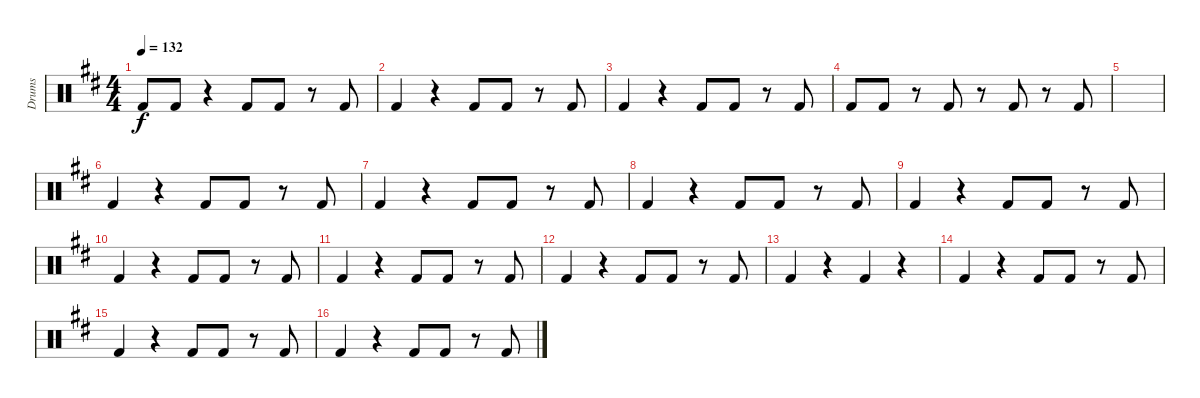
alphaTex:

\track ("Drums" "Drums") {instrument percussion}
\staff {score}
\articulation defaults
\ts (4 4)
\tempo 132
\clef neutral
\ks d "Kick (hit) 2".8{dy f} "Kick (hit) 2".8
r.4 "Kick (hit) 2".8 "Kick (hit) 2".8 r.8 "Kick (hit) 2".8 |
"Kick (hit) 2".4 r.4 "Kick (hit) 2".8 "Kick (hit) 2".8 r.8 "Kick (hit) 2".8 |
"Kick (hit) 2".4 r.4 "Kick (hit) 2".8 "Kick (hit) 2".8 r.8 "Kick (hit) 2".8 |
"Kick (hit) 2".8 "Kick (hit) 2".8 r.8 "Kick (hit) 2".8 r.8 "Kick (hit) 2".8 r.8 "Kick (hit) 2".8 |
|
"Kick (hit) 2".4 r.4 "Kick (hit) 2".8 "Kick (hit) 2".8 r.8 "Kick (hit) 2".8 |
"Kick (hit) 2".4 r.4 "Kick (hit) 2".8 "Kick (hit) 2".8 r.8 "Kick (hit) 2".8 |
"Kick (hit) 2".4 r.4 "Kick (hit) 2".8 "Kick (hit) 2".8 r.8 "Kick (hit) 2".8 |
"Kick (hit) 2".4 r.4 "Kick (hit) 2".8 "Kick (hit) 2".8 r.8 "Kick (hit) 2".8 |
"Kick (hit) 2".4 r.4 "Kick (hit) 2".8 "Kick (hit) 2".8 r.8 "Kick (hit) 2".8 |
"Kick (hit) 2".4 r.4 "Kick (hit) 2".8 "Kick (hit) 2".8 r.8 "Kick (hit) 2".8 |
"Kick (hit) 2".4 r.4 "Kick (hit) 2".8 "Kick (hit) 2".8 r.8 "Kick (hit) 2".8 |
"Kick (hit) 2".4 r.4 "Kick (hit) 2".4 r.4 |
"Kick (hit) 2".4 r.4 "Kick (hit) 2".8 "Kick (hit) 2".8 r.8 "Kick (hit) 2".8 |
"Kick (hit) 2".4 r.4 "Kick (hit) 2".8 "Kick (hit) 2".8 r.8 "Kick (hit) 2".8 |
"Kick (hit) 2".4 r.4 "Kick (hit) 2".8 "Kick (hit) 2".8 r.8 "Kick (hit) 2".8
